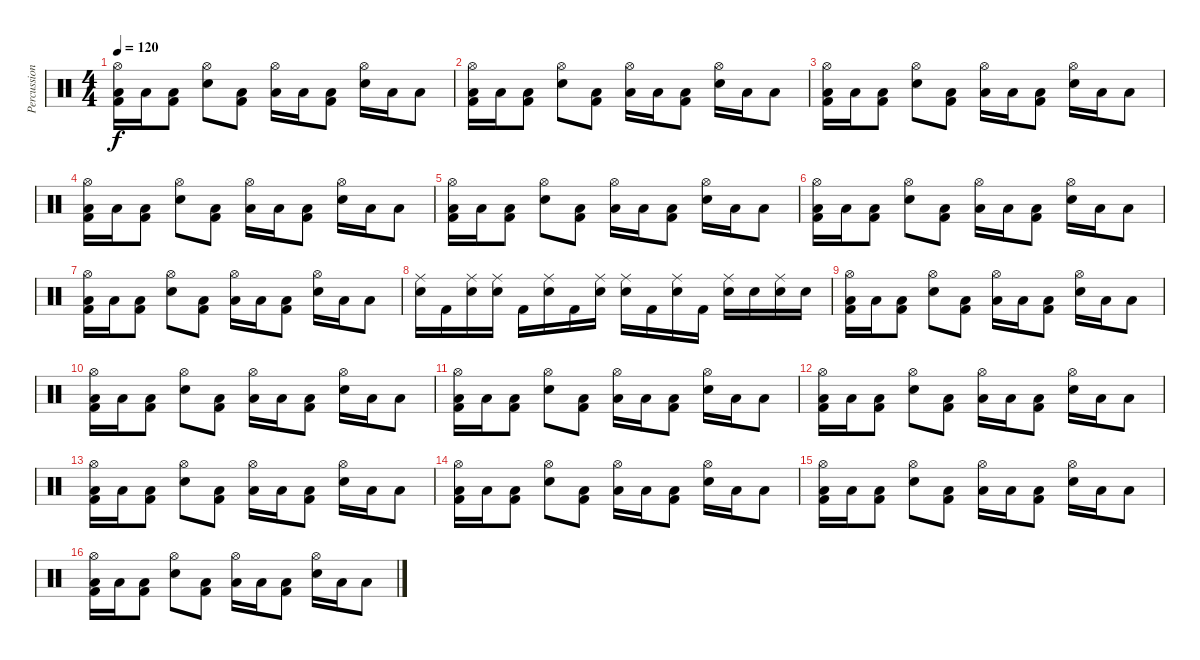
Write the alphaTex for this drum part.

\track ("Percussion" "Percussion") {instrument percussion}
\staff {score}
\articulation defaults
\ts (4 4)
\tempo 120
\clef neutral
\ks c
("Hi-Hat (open)" "Low Floor Tom (hit)" "Kick (hit) 2").16{dy f} "Low Floor Tom (hit)".16 ("Low Floor Tom (hit)" "Kick (hit) 2").8 ("Hi-Hat (open)" "Electric Snare (hit)").8 ("Low Floor Tom (hit)" "Kick (hit) 2").8 ("Hi-Hat (open)" "Low Floor Tom (hit)").16 "Low Floor Tom (hit)".16 ("Low Floor Tom (hit)" "Kick (hit) 2").8 ("Hi-Hat (open)" "Electric Snare (hit)").16 "Low Floor Tom (hit)".16 "Low Floor Tom (hit)".8 |
("Hi-Hat (open)" "Low Floor Tom (hit)" "Kick (hit) 2").16 "Low Floor Tom (hit)".16 ("Low Floor Tom (hit)" "Kick (hit) 2").8 ("Hi-Hat (open)" "Electric Snare (hit)").8 ("Low Floor Tom (hit)" "Kick (hit) 2").8 ("Hi-Hat (open)" "Low Floor Tom (hit)").16 "Low Floor Tom (hit)".16 ("Low Floor Tom (hit)" "Kick (hit) 2").8 ("Hi-Hat (open)" "Electric Snare (hit)").16 "Low Floor Tom (hit)".16 "Low Floor Tom (hit)".8 |
("Hi-Hat (open)" "Low Floor Tom (hit)" "Kick (hit) 2").16 "Low Floor Tom (hit)".16 ("Low Floor Tom (hit)" "Kick (hit) 2").8 ("Hi-Hat (open)" "Electric Snare (hit)").8 ("Low Floor Tom (hit)" "Kick (hit) 2").8 ("Hi-Hat (open)" "Low Floor Tom (hit)").16 "Low Floor Tom (hit)".16 ("Low Floor Tom (hit)" "Kick (hit) 2").8 ("Hi-Hat (open)" "Electric Snare (hit)").16 "Low Floor Tom (hit)".16 "Low Floor Tom (hit)".8 |
("Hi-Hat (open)" "Low Floor Tom (hit)" "Kick (hit) 2").16 "Low Floor Tom (hit)".16 ("Low Floor Tom (hit)" "Kick (hit) 2").8 ("Hi-Hat (open)" "Electric Snare (hit)").8 ("Low Floor Tom (hit)" "Kick (hit) 2").8 ("Hi-Hat (open)" "Low Floor Tom (hit)").16 "Low Floor Tom (hit)".16 ("Low Floor Tom (hit)" "Kick (hit) 2").8 ("Hi-Hat (open)" "Electric Snare (hit)").16 "Low Floor Tom (hit)".16 "Low Floor Tom (hit)".8 |
("Hi-Hat (open)" "Low Floor Tom (hit)" "Kick (hit) 2").16 "Low Floor Tom (hit)".16 ("Low Floor Tom (hit)" "Kick (hit) 2").8 ("Hi-Hat (open)" "Electric Snare (hit)").8 ("Low Floor Tom (hit)" "Kick (hit) 2").8 ("Hi-Hat (open)" "Low Floor Tom (hit)").16 "Low Floor Tom (hit)".16 ("Low Floor Tom (hit)" "Kick (hit) 2").8 ("Hi-Hat (open)" "Electric Snare (hit)").16 "Low Floor Tom (hit)".16 "Low Floor Tom (hit)".8 |
("Hi-Hat (open)" "Low Floor Tom (hit)" "Kick (hit) 2").16 "Low Floor Tom (hit)".16 ("Low Floor Tom (hit)" "Kick (hit) 2").8 ("Hi-Hat (open)" "Electric Snare (hit)").8 ("Low Floor Tom (hit)" "Kick (hit) 2").8 ("Hi-Hat (open)" "Low Floor Tom (hit)").16 "Low Floor Tom (hit)".16 ("Low Floor Tom (hit)" "Kick (hit) 2").8 ("Hi-Hat (open)" "Electric Snare (hit)").16 "Low Floor Tom (hit)".16 "Low Floor Tom (hit)".8 |
("Hi-Hat (open)" "Low Floor Tom (hit)" "Kick (hit) 2").16 "Low Floor Tom (hit)".16 ("Low Floor Tom (hit)" "Kick (hit) 2").8 ("Hi-Hat (open)" "Electric Snare (hit)").8 ("Low Floor Tom (hit)" "Kick (hit) 2").8 ("Hi-Hat (open)" "Low Floor Tom (hit)").16 "Low Floor Tom (hit)".16 ("Low Floor Tom (hit)" "Kick (hit) 2").8 ("Hi-Hat (open)" "Electric Snare (hit)").16 "Low Floor Tom (hit)".16 "Low Floor Tom (hit)".8 |
("Ride (middle)" "Electric Snare (hit)").16 "Kick (hit) 2".16 ("Ride (middle)" "Electric Snare (hit)").16 ("Ride (middle)" "Electric Snare (hit)").16 "Kick (hit) 2".16 ("Ride (middle)" "Electric Snare (hit)").16 "Kick (hit) 2".16 ("Ride (middle)" "Electric Snare (hit)").16 ("Ride (middle)" "Electric Snare (hit)").16 "Kick (hit) 2".16 ("Ride (middle)" "Electric Snare (hit)").16 "Kick (hit) 2".16 ("Ride (middle)" "Electric Snare (hit)").16 "Electric Snare (hit)".16 ("Ride (middle)" "Electric Snare (hit)").16 "Electric Snare (hit)".16 |
("Hi-Hat (open)" "Low Floor Tom (hit)" "Kick (hit) 2").16 "Low Floor Tom (hit)".16 ("Low Floor Tom (hit)" "Kick (hit) 2").8 ("Hi-Hat (open)" "Electric Snare (hit)").8 ("Low Floor Tom (hit)" "Kick (hit) 2").8 ("Hi-Hat (open)" "Low Floor Tom (hit)").16 "Low Floor Tom (hit)".16 ("Low Floor Tom (hit)" "Kick (hit) 2").8 ("Hi-Hat (open)" "Electric Snare (hit)").16 "Low Floor Tom (hit)".16 "Low Floor Tom (hit)".8 |
("Hi-Hat (open)" "Low Floor Tom (hit)" "Kick (hit) 2").16 "Low Floor Tom (hit)".16 ("Low Floor Tom (hit)" "Kick (hit) 2").8 ("Hi-Hat (open)" "Electric Snare (hit)").8 ("Low Floor Tom (hit)" "Kick (hit) 2").8 ("Hi-Hat (open)" "Low Floor Tom (hit)").16 "Low Floor Tom (hit)".16 ("Low Floor Tom (hit)" "Kick (hit) 2").8 ("Hi-Hat (open)" "Electric Snare (hit)").16 "Low Floor Tom (hit)".16 "Low Floor Tom (hit)".8 |
("Hi-Hat (open)" "Low Floor Tom (hit)" "Kick (hit) 2").16 "Low Floor Tom (hit)".16 ("Low Floor Tom (hit)" "Kick (hit) 2").8 ("Hi-Hat (open)" "Electric Snare (hit)").8 ("Low Floor Tom (hit)" "Kick (hit) 2").8 ("Hi-Hat (open)" "Low Floor Tom (hit)").16 "Low Floor Tom (hit)".16 ("Low Floor Tom (hit)" "Kick (hit) 2").8 ("Hi-Hat (open)" "Electric Snare (hit)").16 "Low Floor Tom (hit)".16 "Low Floor Tom (hit)".8 |
("Hi-Hat (open)" "Low Floor Tom (hit)" "Kick (hit) 2").16 "Low Floor Tom (hit)".16 ("Low Floor Tom (hit)" "Kick (hit) 2").8 ("Hi-Hat (open)" "Electric Snare (hit)").8 ("Low Floor Tom (hit)" "Kick (hit) 2").8 ("Hi-Hat (open)" "Low Floor Tom (hit)").16 "Low Floor Tom (hit)".16 ("Low Floor Tom (hit)" "Kick (hit) 2").8 ("Hi-Hat (open)" "Electric Snare (hit)").16 "Low Floor Tom (hit)".16 "Low Floor Tom (hit)".8 |
("Hi-Hat (open)" "Low Floor Tom (hit)" "Kick (hit) 2").16 "Low Floor Tom (hit)".16 ("Low Floor Tom (hit)" "Kick (hit) 2").8 ("Hi-Hat (open)" "Electric Snare (hit)").8 ("Low Floor Tom (hit)" "Kick (hit) 2").8 ("Hi-Hat (open)" "Low Floor Tom (hit)").16 "Low Floor Tom (hit)".16 ("Low Floor Tom (hit)" "Kick (hit) 2").8 ("Hi-Hat (open)" "Electric Snare (hit)").16 "Low Floor Tom (hit)".16 "Low Floor Tom (hit)".8 |
("Hi-Hat (open)" "Low Floor Tom (hit)" "Kick (hit) 2").16 "Low Floor Tom (hit)".16 ("Low Floor Tom (hit)" "Kick (hit) 2").8 ("Hi-Hat (open)" "Electric Snare (hit)").8 ("Low Floor Tom (hit)" "Kick (hit) 2").8 ("Hi-Hat (open)" "Low Floor Tom (hit)").16 "Low Floor Tom (hit)".16 ("Low Floor Tom (hit)" "Kick (hit) 2").8 ("Hi-Hat (open)" "Electric Snare (hit)").16 "Low Floor Tom (hit)".16 "Low Floor Tom (hit)".8 |
("Hi-Hat (open)" "Low Floor Tom (hit)" "Kick (hit) 2").16 "Low Floor Tom (hit)".16 ("Low Floor Tom (hit)" "Kick (hit) 2").8 ("Hi-Hat (open)" "Electric Snare (hit)").8 ("Low Floor Tom (hit)" "Kick (hit) 2").8 ("Hi-Hat (open)" "Low Floor Tom (hit)").16 "Low Floor Tom (hit)".16 ("Low Floor Tom (hit)" "Kick (hit) 2").8 ("Hi-Hat (open)" "Electric Snare (hit)").16 "Low Floor Tom (hit)".16 "Low Floor Tom (hit)".8 |
("Hi-Hat (open)" "Low Floor Tom (hit)" "Kick (hit) 2").16 "Low Floor Tom (hit)".16 ("Low Floor Tom (hit)" "Kick (hit) 2").8 ("Hi-Hat (open)" "Electric Snare (hit)").8 ("Low Floor Tom (hit)" "Kick (hit) 2").8 ("Hi-Hat (open)" "Low Floor Tom (hit)").16 "Low Floor Tom (hit)".16 ("Low Floor Tom (hit)" "Kick (hit) 2").8 ("Hi-Hat (open)" "Electric Snare (hit)").16 "Low Floor Tom (hit)".16 "Low Floor Tom (hit)".8
